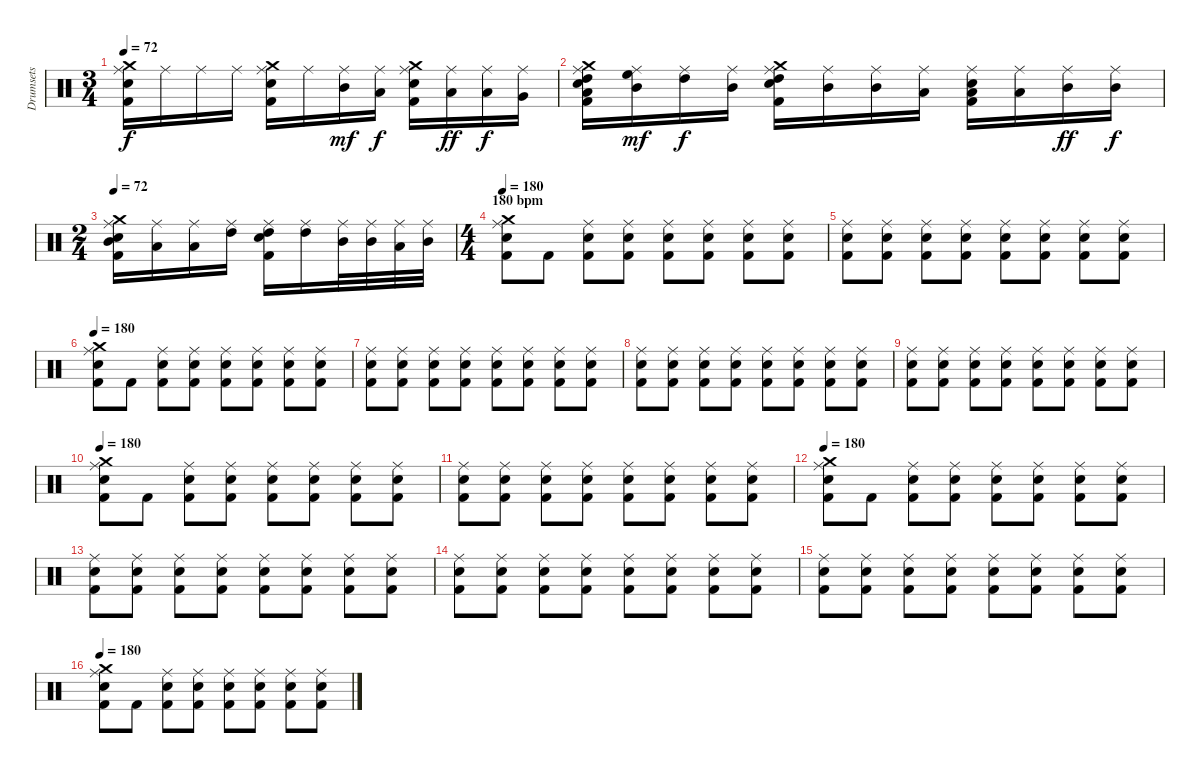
\track ("Drumsets" "Drumsets") {instrument percussion}
\staff {score}
\articulation defaults
\ts (3 4)
\tempo 72
\clef neutral
\ks c
("Ride (middle)" "Kick (hit) 2" "Snare (hit) 2" "Crash medium (hit)").16{dy f} "Ride (middle)".16 "Ride (middle)".16 "Ride (middle)".16 ("Ride (middle)" "Kick (hit) 2" "Snare (hit) 2" "Crash medium (hit)").16 "Ride (middle)".16 ("Ride (middle)" "Mid Tom (hit)").16{dy mf} ("Ride (middle)" "Low Tom (hit)").16{dy f} ("Ride (middle)" "Kick (hit) 2" "Snare (hit) 2" "Crash medium (hit)").16 ("Ride (middle)" "Low Tom (hit)").16{dy ff} ("Ride (middle)" "Low Tom (hit)").16{dy f} ("Ride (middle)" "Very Low Tom (hit)").16 |
("High Tom (hit)" "Ride (middle)" "Kick (hit) 2" "Snare (hit) 2" "Crash medium (hit)" "Low Tom (hit)").16 ("Ride (middle)" "High Floor Tom (hit)" "Mid Tom (hit)").16{dy mf} ("Ride (middle)" "High Tom (hit)").16{dy f} ("Ride (middle)" "Mid Tom (hit)").16 ("Ride (middle)" "Snare (hit) 2" "Kick (hit) 2" "Crash medium (hit)" "High Tom (hit)").16 ("Ride (middle)" "Mid Tom (hit)").16 ("Ride (middle)" "Mid Tom (hit)").16 ("Ride (middle)" "Low Tom (hit)").16 ("Ride (middle)" "Snare (hit) 2" "Kick (hit) 2" "Low Tom (hit)").16 ("Ride (middle)" "Low Tom (hit)").16 ("Ride (middle)" "Mid Tom (hit)").16{dy ff} ("Ride (middle)" "Mid Tom (hit)").16{dy f} |
\ts (2 4)
\tempo 72
("Ride (middle)" "Snare (hit) 2" "Kick (hit) 2" "Crash medium (hit)" "Mid Tom (hit)").16 ("Ride (middle)" "Low Tom (hit)").16 ("Ride (middle)" "Low Tom (hit)").16 ("Ride (middle)" "High Tom (hit)").16 ("Ride (middle)" "Snare (hit) 2" "High Tom (hit)" "Kick (hit) 2").16 ("Ride (middle)" "High Tom (hit)").16 ("Ride (middle)" "Mid Tom (hit)").32 ("Ride (middle)" "Mid Tom (hit)").32 ("Ride (middle)" "Low Tom (hit)").32 ("Ride (middle)" "Mid Tom (hit)").32 |
\ts (4 4)
\section ("" "180 bpm")
\tempo 180
("Kick (hit) 2" "Snare (hit) 2" "Ride (middle)" "Crash medium (hit)").8 "Kick (hit) 2".8 ("Kick (hit) 2" "Snare (hit) 2" "Ride (middle)").8 ("Kick (hit) 2" "Snare (hit) 2" "Ride (middle)").8 ("Kick (hit) 2" "Snare (hit) 2" "Ride (middle)").8 ("Kick (hit) 2" "Snare (hit) 2" "Ride (middle)").8 ("Kick (hit) 2" "Snare (hit) 2" "Ride (middle)").8 ("Kick (hit) 2" "Snare (hit) 2" "Ride (middle)").8 |
("Kick (hit) 2" "Snare (hit) 2" "Ride (middle)").8 ("Kick (hit) 2" "Snare (hit) 2" "Ride (middle)").8 ("Kick (hit) 2" "Snare (hit) 2" "Ride (middle)").8 ("Kick (hit) 2" "Snare (hit) 2" "Ride (middle)").8 ("Kick (hit) 2" "Snare (hit) 2" "Ride (middle)").8 ("Kick (hit) 2" "Snare (hit) 2" "Ride (middle)").8 ("Kick (hit) 2" "Snare (hit) 2" "Ride (middle)").8 ("Kick (hit) 2" "Snare (hit) 2" "Ride (middle)").8 |
\tempo 180
("Kick (hit) 2" "Snare (hit) 2" "Ride (middle)" "Crash medium (hit)").8 "Kick (hit) 2".8 ("Kick (hit) 2" "Snare (hit) 2" "Ride (middle)").8 ("Kick (hit) 2" "Snare (hit) 2" "Ride (middle)").8 ("Kick (hit) 2" "Snare (hit) 2" "Ride (middle)").8 ("Kick (hit) 2" "Snare (hit) 2" "Ride (middle)").8 ("Kick (hit) 2" "Snare (hit) 2" "Ride (middle)").8 ("Kick (hit) 2" "Snare (hit) 2" "Ride (middle)").8 |
("Kick (hit) 2" "Snare (hit) 2" "Ride (middle)").8 ("Kick (hit) 2" "Snare (hit) 2" "Ride (middle)").8 ("Kick (hit) 2" "Snare (hit) 2" "Ride (middle)").8 ("Kick (hit) 2" "Snare (hit) 2" "Ride (middle)").8 ("Kick (hit) 2" "Snare (hit) 2" "Ride (middle)").8 ("Kick (hit) 2" "Snare (hit) 2" "Ride (middle)").8 ("Kick (hit) 2" "Snare (hit) 2" "Ride (middle)").8 ("Kick (hit) 2" "Snare (hit) 2" "Ride (middle)").8 |
("Kick (hit) 2" "Snare (hit) 2" "Ride (middle)").8 ("Kick (hit) 2" "Snare (hit) 2" "Ride (middle)").8 ("Kick (hit) 2" "Snare (hit) 2" "Ride (middle)").8 ("Kick (hit) 2" "Snare (hit) 2" "Ride (middle)").8 ("Kick (hit) 2" "Snare (hit) 2" "Ride (middle)").8 ("Kick (hit) 2" "Snare (hit) 2" "Ride (middle)").8 ("Kick (hit) 2" "Snare (hit) 2" "Ride (middle)").8 ("Kick (hit) 2" "Snare (hit) 2" "Ride (middle)").8 |
("Kick (hit) 2" "Snare (hit) 2" "Ride (middle)").8 ("Kick (hit) 2" "Snare (hit) 2" "Ride (middle)").8 ("Kick (hit) 2" "Snare (hit) 2" "Ride (middle)").8 ("Kick (hit) 2" "Snare (hit) 2" "Ride (middle)").8 ("Kick (hit) 2" "Snare (hit) 2" "Ride (middle)").8 ("Kick (hit) 2" "Snare (hit) 2" "Ride (middle)").8 ("Kick (hit) 2" "Snare (hit) 2" "Ride (middle)").8 ("Kick (hit) 2" "Snare (hit) 2" "Ride (middle)").8 |
\tempo 180
("Kick (hit) 2" "Snare (hit) 2" "Ride (middle)" "Crash medium (hit)").8 "Kick (hit) 2".8 ("Kick (hit) 2" "Snare (hit) 2" "Ride (middle)").8 ("Kick (hit) 2" "Snare (hit) 2" "Ride (middle)").8 ("Kick (hit) 2" "Snare (hit) 2" "Ride (middle)").8 ("Kick (hit) 2" "Snare (hit) 2" "Ride (middle)").8 ("Kick (hit) 2" "Snare (hit) 2" "Ride (middle)").8 ("Kick (hit) 2" "Snare (hit) 2" "Ride (middle)").8 |
("Kick (hit) 2" "Snare (hit) 2" "Ride (middle)").8 ("Kick (hit) 2" "Snare (hit) 2" "Ride (middle)").8 ("Kick (hit) 2" "Snare (hit) 2" "Ride (middle)").8 ("Kick (hit) 2" "Snare (hit) 2" "Ride (middle)").8 ("Kick (hit) 2" "Snare (hit) 2" "Ride (middle)").8 ("Kick (hit) 2" "Snare (hit) 2" "Ride (middle)").8 ("Kick (hit) 2" "Snare (hit) 2" "Ride (middle)").8 ("Kick (hit) 2" "Snare (hit) 2" "Ride (middle)").8 |
\tempo 180
("Kick (hit) 2" "Snare (hit) 2" "Ride (middle)" "Crash medium (hit)").8 "Kick (hit) 2".8 ("Kick (hit) 2" "Snare (hit) 2" "Ride (middle)").8 ("Kick (hit) 2" "Snare (hit) 2" "Ride (middle)").8 ("Kick (hit) 2" "Snare (hit) 2" "Ride (middle)").8 ("Kick (hit) 2" "Snare (hit) 2" "Ride (middle)").8 ("Kick (hit) 2" "Snare (hit) 2" "Ride (middle)").8 ("Kick (hit) 2" "Snare (hit) 2" "Ride (middle)").8 |
("Kick (hit) 2" "Snare (hit) 2" "Ride (middle)").8 ("Kick (hit) 2" "Snare (hit) 2" "Ride (middle)").8 ("Kick (hit) 2" "Snare (hit) 2" "Ride (middle)").8 ("Kick (hit) 2" "Snare (hit) 2" "Ride (middle)").8 ("Kick (hit) 2" "Snare (hit) 2" "Ride (middle)").8 ("Kick (hit) 2" "Snare (hit) 2" "Ride (middle)").8 ("Kick (hit) 2" "Snare (hit) 2" "Ride (middle)").8 ("Kick (hit) 2" "Snare (hit) 2" "Ride (middle)").8 |
("Kick (hit) 2" "Snare (hit) 2" "Ride (middle)").8 ("Kick (hit) 2" "Snare (hit) 2" "Ride (middle)").8 ("Kick (hit) 2" "Snare (hit) 2" "Ride (middle)").8 ("Kick (hit) 2" "Snare (hit) 2" "Ride (middle)").8 ("Kick (hit) 2" "Snare (hit) 2" "Ride (middle)").8 ("Kick (hit) 2" "Snare (hit) 2" "Ride (middle)").8 ("Kick (hit) 2" "Snare (hit) 2" "Ride (middle)").8 ("Kick (hit) 2" "Snare (hit) 2" "Ride (middle)").8 |
("Kick (hit) 2" "Snare (hit) 2" "Ride (middle)").8 ("Kick (hit) 2" "Snare (hit) 2" "Ride (middle)").8 ("Kick (hit) 2" "Snare (hit) 2" "Ride (middle)").8 ("Kick (hit) 2" "Snare (hit) 2" "Ride (middle)").8 ("Kick (hit) 2" "Snare (hit) 2" "Ride (middle)").8 ("Kick (hit) 2" "Snare (hit) 2" "Ride (middle)").8 ("Kick (hit) 2" "Snare (hit) 2" "Ride (middle)").8 ("Kick (hit) 2" "Snare (hit) 2" "Ride (middle)").8 |
\tempo 180
("Kick (hit) 2" "Snare (hit) 2" "Ride (middle)" "Crash medium (hit)").8 "Kick (hit) 2".8 ("Kick (hit) 2" "Snare (hit) 2" "Ride (middle)").8 ("Kick (hit) 2" "Snare (hit) 2" "Ride (middle)").8 ("Kick (hit) 2" "Snare (hit) 2" "Ride (middle)").8 ("Kick (hit) 2" "Snare (hit) 2" "Ride (middle)").8 ("Kick (hit) 2" "Snare (hit) 2" "Ride (middle)").8 ("Kick (hit) 2" "Snare (hit) 2" "Ride (middle)").8
